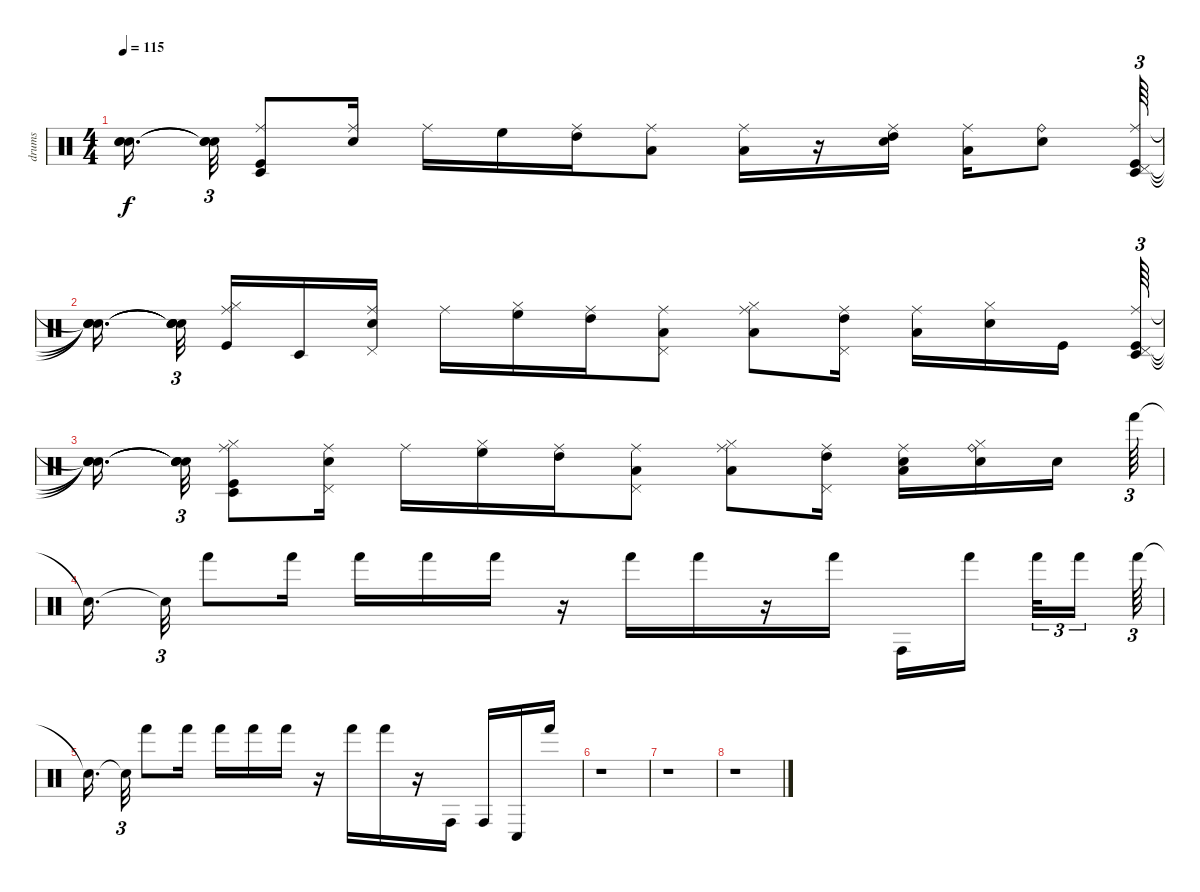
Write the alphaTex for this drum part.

\track ("drums" "drums") {instrument percussion}
\staff {score}
\articulation defaults
\ts (4 4)
\tempo 115
\clef neutral
\ks c
("Snare (hit)"{t} "Snare (hit)"{t} "Snare (hit)"{t}).16{d dy f} ("Snare (hit)"{t} "Snare (hit)"{t} "Snare (hit)"{t}).32{tu (3 2)} ("Ride (middle)" "Kick (hit)" "Timbale low (hit)").8 ("Ride (middle)" "Electric Snare (hit)").16 "Ride (middle)".16 "High Floor Tom (hit)".16 ("Ride (middle)" "High Tom (hit)").16 ("Low Tom (hit)" "Ride (middle)").8 ("Ride (middle)" "Low Tom (hit)").16 r.16 ("High Tom (hit)" "Electric Snare (hit)" "Ride (middle)").16 ("Ride (middle)" "Low Tom (hit)").16 ("Ride (bell)" "Snare (hit) 2").8 ("Timbale low (hit)" "Ride (middle)" "Pedal Hi-Hat (hit)" "Kick (hit)").64{tu (3 2)} |
("Snare (hit)"{t} "Snare (hit)"{t} "Snare (hit)"{t} "Snare (hit)"{t}).16{d} ("Snare (hit)"{t} "Snare (hit)"{t} "Snare (hit)"{t} "Snare (hit)"{t}).32{tu (3 2)} ("Ride (middle)" "Hi-Hat (closed)" "Kick (hit)").16 "Timbale low (hit)".16 ("Ride (middle)" "Pedal Hi-Hat (hit)" "Electric Snare (hit)").16 "Ride (middle)".16 ("High Floor Tom (hit)" "Hi-Hat (closed)").16 ("Ride (middle)" "High Tom (hit)").16 ("Pedal Hi-Hat (hit)" "Low Tom (hit)" "Ride (middle)").8 ("Low Tom (hit)" "Ride (middle)" "Hi-Hat (closed)").8 ("Pedal Hi-Hat (hit)" "High Tom (hit)" "Ride (middle)").16 ("Ride (middle)" "Low Tom (hit)").16 ("Snare (hit) 2" "Hi-Hat (closed)").16 "Kick (hit)".16 ("Timbale low (hit)" "Pedal Hi-Hat (hit)" "Kick (hit)" "Ride (middle)").64{tu (3 2)} |
("Snare (hit)"{t} "Snare (hit)"{t} "Snare (hit)"{t} "Snare (hit)"{t}).16{d} ("Snare (hit)"{t} "Snare (hit)"{t} "Snare (hit)"{t} "Snare (hit)"{t}).32{tu (3 2)} ("Timbale low (hit)" "Ride (middle)" "Hi-Hat (closed)" "Kick (hit)").8 ("Ride (middle)" "Electric Snare (hit)" "Pedal Hi-Hat (hit)").16 "Ride (middle)".16 ("Hi-Hat (closed)" "High Floor Tom (hit)").16 ("High Tom (hit)" "Ride (middle)").16 ("Pedal Hi-Hat (hit)" "Low Tom (hit)" "Ride (middle)").8 ("Low Tom (hit)" "Hi-Hat (closed)" "Ride (middle)").8 ("Ride (middle)" "Pedal Hi-Hat (hit)" "High Tom (hit)").16 ("Ride (middle)" "Low Tom (hit)" "Snare (hit) 2").16 ("Snare (hit) 2" "Ride (bell)" "Hi-Hat (closed)").16 "Snare (hit) 2".16 "Hand (hit)".64{tu (3 2)} |
"Snare (hit)"{t}.16{d} "Snare (hit)"{t}.32{tu (3 2)} "Hand (hit)".8 "Hand (hit)".16 "Hand (hit)".16 "Hand (hit)".16 "Hand (hit)".16 r.16 "Hand (hit)".16 "Hand (hit)".16 r.16 "Hand (hit)".16 "Conga high (hit)".16 "Hand (hit)".16 "Hand (hit)".32{tu (3 2)} "Hand (hit)".16{tu (3 2)} "Hand (hit)".64{tu (3 2)} |
"Snare (hit)"{t}.16{d} "Snare (hit)"{t}.32{tu (3 2)} "Hand (hit)".8 "Hand (hit)".16 "Hand (hit)".16 "Hand (hit)".16 "Hand (hit)".16 r.16 "Hand (hit)".16 "Hand (hit)".16 r.16 "Conga high (hit)".16 "Conga high (hit)".16 "Conga low (hit)".16 "Hand (hit)".16 |
r.1 |
r.1 |
r.1
